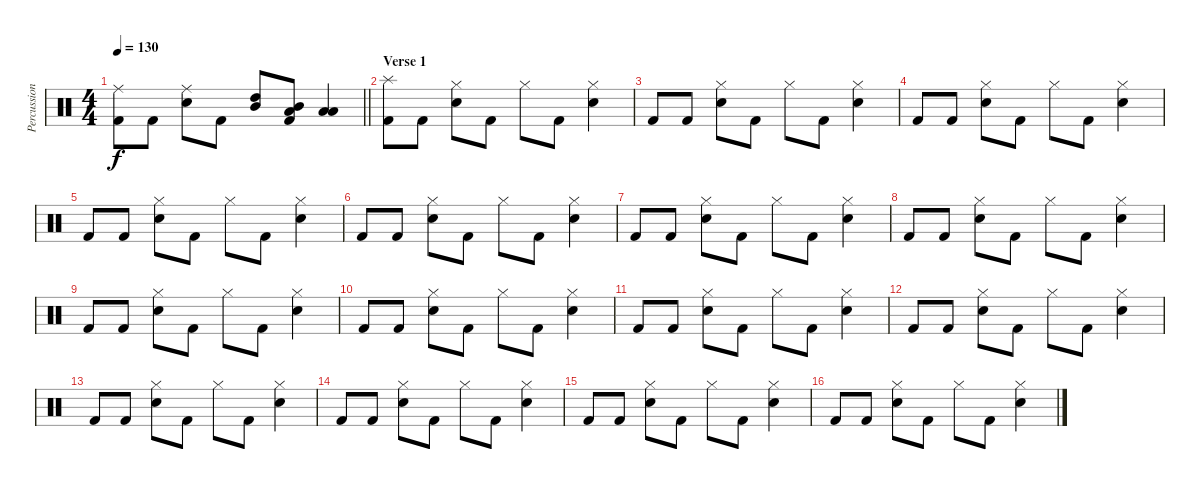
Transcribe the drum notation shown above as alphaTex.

\track ("Percussion" "Percussion") {instrument percussion}
\staff {score}
\articulation defaults
\ts (4 4)
\tempo 130
\clef neutral
\barLineRight lightlight
\ks c
("Ride (middle)" "Kick (hit) 2").8{dy f} "Kick (hit) 2".8 ("Ride (middle)" "Snare (hit) 2").8 "Kick (hit) 2".8 ("Mid Tom (hit)" "High Tom (hit)").8 ("Low Tom (hit)" "Mid Tom (hit)" "Kick (hit) 2").8 ("Low Floor Tom (hit)" "Low Tom (hit)").4 |
\section ("" "Verse 1")
("Splash (hit)" "Kick (hit) 2").8 "Kick (hit) 2".8 ("Hi-Hat (closed)" "Snare (hit) 2").8 "Kick (hit) 2".8 "Hi-Hat (closed)".8 "Kick (hit) 2".8 ("Hi-Hat (closed)" "Snare (hit) 2").4 |
"Kick (hit) 2".8 "Kick (hit) 2".8 ("Hi-Hat (closed)" "Snare (hit) 2").8 "Kick (hit) 2".8 "Hi-Hat (closed)".8 "Kick (hit) 2".8 ("Hi-Hat (closed)" "Snare (hit) 2").4 |
"Kick (hit) 2".8 "Kick (hit) 2".8 ("Hi-Hat (closed)" "Snare (hit) 2").8 "Kick (hit) 2".8 "Hi-Hat (closed)".8 "Kick (hit) 2".8 ("Hi-Hat (closed)" "Snare (hit) 2").4 |
"Kick (hit) 2".8 "Kick (hit) 2".8 ("Hi-Hat (closed)" "Snare (hit) 2").8 "Kick (hit) 2".8 "Hi-Hat (closed)".8 "Kick (hit) 2".8 ("Hi-Hat (closed)" "Snare (hit) 2").4 |
"Kick (hit) 2".8 "Kick (hit) 2".8 ("Hi-Hat (closed)" "Snare (hit) 2").8 "Kick (hit) 2".8 "Hi-Hat (closed)".8 "Kick (hit) 2".8 ("Hi-Hat (closed)" "Snare (hit) 2").4 |
"Kick (hit) 2".8 "Kick (hit) 2".8 ("Hi-Hat (closed)" "Snare (hit) 2").8 "Kick (hit) 2".8 "Hi-Hat (closed)".8 "Kick (hit) 2".8 ("Hi-Hat (closed)" "Snare (hit) 2").4 |
"Kick (hit) 2".8 "Kick (hit) 2".8 ("Hi-Hat (closed)" "Snare (hit) 2").8 "Kick (hit) 2".8 "Hi-Hat (closed)".8 "Kick (hit) 2".8 ("Hi-Hat (closed)" "Snare (hit) 2").4 |
"Kick (hit) 2".8 "Kick (hit) 2".8 ("Hi-Hat (closed)" "Snare (hit) 2").8 "Kick (hit) 2".8 "Hi-Hat (closed)".8 "Kick (hit) 2".8 ("Hi-Hat (closed)" "Snare (hit) 2").4 |
"Kick (hit) 2".8 "Kick (hit) 2".8 ("Hi-Hat (closed)" "Snare (hit) 2").8 "Kick (hit) 2".8 "Hi-Hat (closed)".8 "Kick (hit) 2".8 ("Hi-Hat (closed)" "Snare (hit) 2").4 |
"Kick (hit) 2".8 "Kick (hit) 2".8 ("Hi-Hat (closed)" "Snare (hit) 2").8 "Kick (hit) 2".8 "Hi-Hat (closed)".8 "Kick (hit) 2".8 ("Hi-Hat (closed)" "Snare (hit) 2").4 |
"Kick (hit) 2".8 "Kick (hit) 2".8 ("Hi-Hat (closed)" "Snare (hit) 2").8 "Kick (hit) 2".8 "Hi-Hat (closed)".8 "Kick (hit) 2".8 ("Hi-Hat (closed)" "Snare (hit) 2").4 |
"Kick (hit) 2".8 "Kick (hit) 2".8 ("Hi-Hat (closed)" "Snare (hit) 2").8 "Kick (hit) 2".8 "Hi-Hat (closed)".8 "Kick (hit) 2".8 ("Hi-Hat (closed)" "Snare (hit) 2").4 |
"Kick (hit) 2".8 "Kick (hit) 2".8 ("Hi-Hat (closed)" "Snare (hit) 2").8 "Kick (hit) 2".8 "Hi-Hat (closed)".8 "Kick (hit) 2".8 ("Hi-Hat (closed)" "Snare (hit) 2").4 |
"Kick (hit) 2".8 "Kick (hit) 2".8 ("Hi-Hat (closed)" "Snare (hit) 2").8 "Kick (hit) 2".8 "Hi-Hat (closed)".8 "Kick (hit) 2".8 ("Hi-Hat (closed)" "Snare (hit) 2").4 |
"Kick (hit) 2".8 "Kick (hit) 2".8 ("Hi-Hat (closed)" "Snare (hit) 2").8 "Kick (hit) 2".8 "Hi-Hat (closed)".8 "Kick (hit) 2".8 ("Hi-Hat (closed)" "Snare (hit) 2").4
